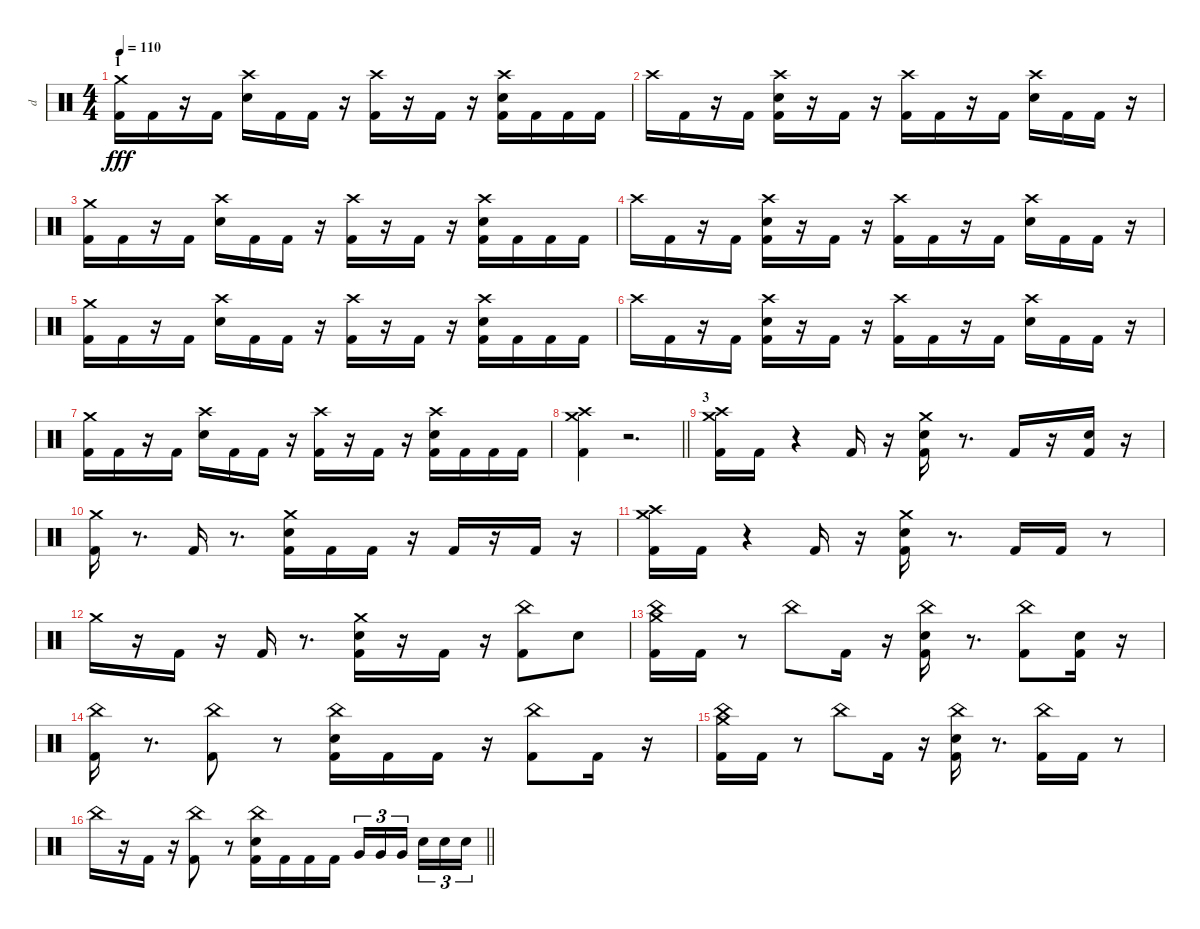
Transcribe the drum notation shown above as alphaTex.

\track ("d" "d") {instrument percussion}
\staff {score}
\articulation defaults
\ts (4 4)
\section ("" "1")
\tempo 110
\clef neutral
\ks c
("Crash medium (hit)" "Kick (hit) 2").16{dy fff} "Kick (hit) 2".16 r.16 "Kick (hit) 2".16 ("Electric Snare (hit)" "Crash high (hit)").16 "Kick (hit) 2".16 "Kick (hit) 2".16 r.16 ("Kick (hit) 2" "Crash high (hit)").16 r.16 "Kick (hit) 2".16 r.16 ("Crash high (hit)" "Kick (hit) 2" "Electric Snare (hit)").16 "Kick (hit) 2".16 "Kick (hit) 2".16 "Kick (hit) 2".16 |
"Crash high (hit)".16 "Kick (hit) 2".16 r.16 "Kick (hit) 2".16 ("Kick (hit) 2" "Electric Snare (hit)" "Crash high (hit)").16 r.16 "Kick (hit) 2".16 r.16 ("Kick (hit) 2" "Crash high (hit)").16 "Kick (hit) 2".16 r.16 "Kick (hit) 2".16 ("Crash high (hit)" "Electric Snare (hit)").16 "Kick (hit) 2".16 "Kick (hit) 2".16 r.16 |
("Kick (hit) 2" "Crash medium (hit)").16 "Kick (hit) 2".16 r.16 "Kick (hit) 2".16 ("Electric Snare (hit)" "Crash high (hit)").16 "Kick (hit) 2".16 "Kick (hit) 2".16 r.16 ("Crash high (hit)" "Kick (hit) 2").16 r.16 "Kick (hit) 2".16 r.16 ("Electric Snare (hit)" "Kick (hit) 2" "Crash high (hit)").16 "Kick (hit) 2".16 "Kick (hit) 2".16 "Kick (hit) 2".16 |
"Crash high (hit)".16 "Kick (hit) 2".16 r.16 "Kick (hit) 2".16 ("Electric Snare (hit)" "Kick (hit) 2" "Crash high (hit)").16 r.16 "Kick (hit) 2".16 r.16 ("Kick (hit) 2" "Crash high (hit)").16 "Kick (hit) 2".16 r.16 "Kick (hit) 2".16 ("Crash high (hit)" "Electric Snare (hit)").16 "Kick (hit) 2".16 "Kick (hit) 2".16 r.16 |
("Kick (hit) 2" "Crash medium (hit)").16 "Kick (hit) 2".16 r.16 "Kick (hit) 2".16 ("Crash high (hit)" "Electric Snare (hit)").16 "Kick (hit) 2".16 "Kick (hit) 2".16 r.16 ("Kick (hit) 2" "Crash high (hit)").16 r.16 "Kick (hit) 2".16 r.16 ("Kick (hit) 2" "Electric Snare (hit)" "Crash high (hit)").16 "Kick (hit) 2".16 "Kick (hit) 2".16 "Kick (hit) 2".16 |
"Crash high (hit)".16 "Kick (hit) 2".16 r.16 "Kick (hit) 2".16 ("Kick (hit) 2" "Electric Snare (hit)" "Crash high (hit)").16 r.16 "Kick (hit) 2".16 r.16 ("Kick (hit) 2" "Crash high (hit)").16 "Kick (hit) 2".16 r.16 "Kick (hit) 2".16 ("Crash high (hit)" "Electric Snare (hit)").16 "Kick (hit) 2".16 "Kick (hit) 2".16 r.16 |
("Kick (hit) 2" "Crash medium (hit)").16 "Kick (hit) 2".16 r.16 "Kick (hit) 2".16 ("Electric Snare (hit)" "Crash high (hit)").16 "Kick (hit) 2".16 "Kick (hit) 2".16 r.16 ("Crash high (hit)" "Kick (hit) 2").16 r.16 "Kick (hit) 2".16 r.16 ("Electric Snare (hit)" "Kick (hit) 2" "Crash high (hit)").16 "Kick (hit) 2".16 "Kick (hit) 2".16 "Kick (hit) 2".16 |
\barLineRight lightlight
("Crash medium (hit)" "Kick (hit) 2" "Crash high (hit)").4 r.2{d} |
\section ("" "3")
("Crash medium (hit)" "Kick (hit) 2" "Crash high (hit)").16 "Kick (hit) 2".16 r.4 "Kick (hit) 2".16 r.16 ("Kick (hit) 2" "Electric Snare (hit)" "Crash medium (hit)").16 r.8{d} "Kick (hit) 2".16 r.16 ("Kick (hit) 2" "Electric Snare (hit)").16 r.16 |
("Kick (hit) 2" "Crash medium (hit)").16 r.8{d} "Kick (hit) 2".16 r.8{d} ("Kick (hit) 2" "Electric Snare (hit)" "Crash medium (hit)").16 "Kick (hit) 2".16 "Kick (hit) 2".16 r.16 "Kick (hit) 2".16 r.16 "Kick (hit) 2".16 r.16 |
("Crash medium (hit)" "Kick (hit) 2" "Crash high (hit)").16 "Kick (hit) 2".16 r.4 "Kick (hit) 2".16 r.16 ("Kick (hit) 2" "Electric Snare (hit)" "Crash medium (hit)").16 r.8{d} "Kick (hit) 2".16 "Kick (hit) 2".16 r.8 |
"Crash medium (hit)".16 r.16 "Kick (hit) 2".16 r.16 "Kick (hit) 2".16 r.8{d} ("Electric Snare (hit)" "Kick (hit) 2" "Crash medium (hit)").16 r.16 "Kick (hit) 2".16 r.16 ("Kick (hit) 2" "China (hit)").8 "Electric Snare (hit)".8 |
("Kick (hit) 2" "Crash medium (hit)" "China (hit)").16 "Kick (hit) 2".16 r.8 "China (hit)".8 "Kick (hit) 2".16 r.16 ("Electric Snare (hit)" "Kick (hit) 2" "China (hit)").16 r.8{d} ("China (hit)" "Kick (hit) 2").8 ("Kick (hit) 2" "Electric Snare (hit)").16 r.16 |
("Kick (hit) 2" "China (hit)").16 r.8{d} ("China (hit)" "Kick (hit) 2").8 r.8 ("China (hit)" "Kick (hit) 2" "Electric Snare (hit)").16 "Kick (hit) 2".16 "Kick (hit) 2".16 r.16 ("Kick (hit) 2" "China (hit)").8 "Kick (hit) 2".16 r.16 |
("Kick (hit) 2" "China (hit)" "Crash medium (hit)").16 "Kick (hit) 2".16 r.8 "China (hit)".8 "Kick (hit) 2".16 r.16 ("Kick (hit) 2" "Electric Snare (hit)" "China (hit)").16 r.8{d} ("Kick (hit) 2" "China (hit)").16 "Kick (hit) 2".16 r.8 |
\barLineRight lightlight "China (hit)".16
r.16 "Kick (hit) 2".16 r.16 ("China (hit)" "Kick (hit) 2").8 r.8 ("China (hit)" "Kick (hit) 2" "Electric Snare (hit)").16 "Kick (hit) 2".16 "Kick (hit) 2".16 "Kick (hit) 2".16 "Very Low Tom (hit)".16{tu (3 2)} "Very Low Tom (hit)".16{tu (3 2)} "Very Low Tom (hit)".16{tu (3 2) beam splitsecondary} "Electric Snare (hit)".16{tu (3 2)} "Electric Snare (hit)".16{tu (3 2)} "Electric Snare (hit)".16{tu (3 2)}
